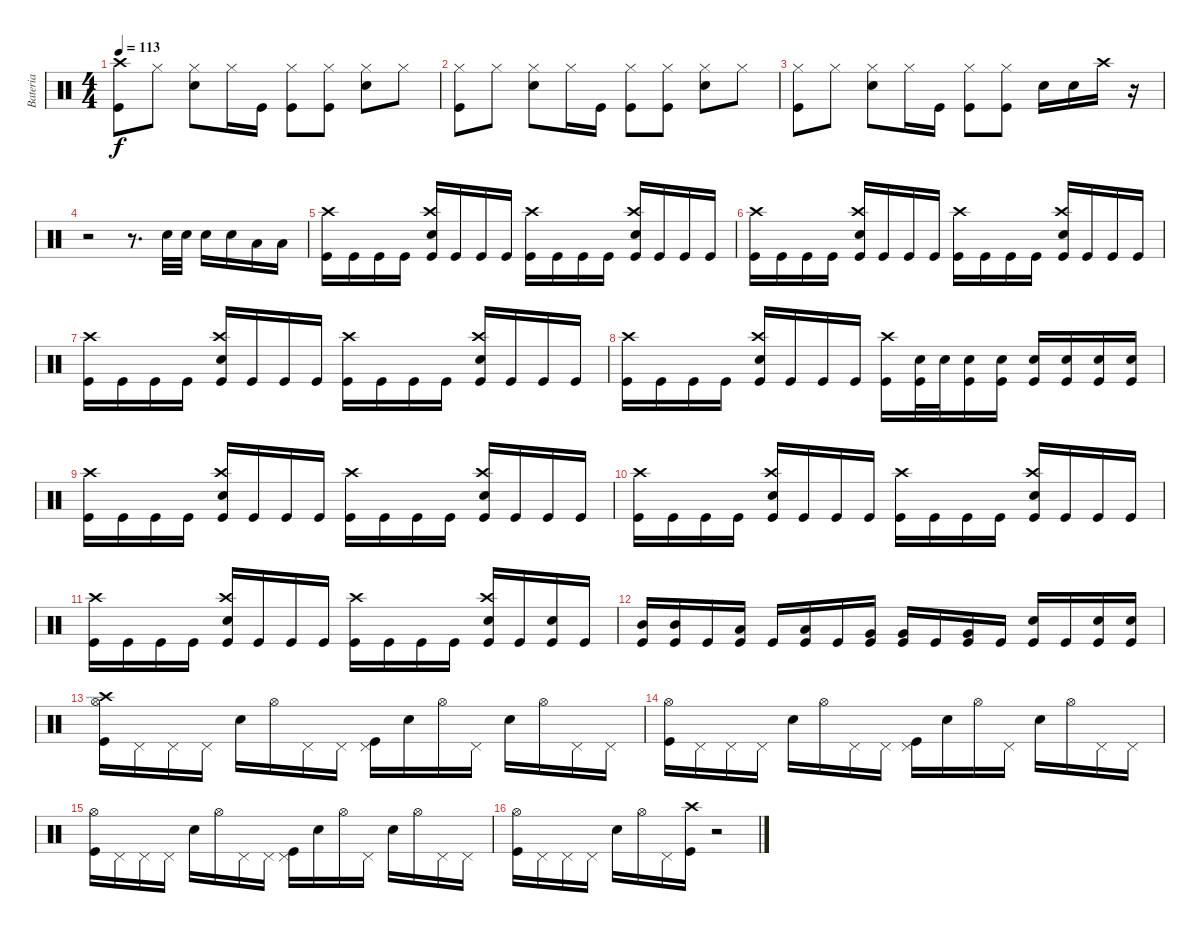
\track ("Bateria" "Bateria") {instrument percussion}
\staff {score}
\articulation defaults
\ts (4 4)
\tempo 113
\clef neutral
\ks c
("Kick (hit)" "Crash high (hit)").8{dy f} "Hi-Hat (closed)".8 ("Hi-Hat (closed)" "Snare (hit) 2").8 "Hi-Hat (closed)".16 "Kick (hit)".16 ("Kick (hit)" "Hi-Hat (closed)").8 ("Kick (hit)" "Hi-Hat (closed)").8 ("Hi-Hat (closed)" "Snare (hit) 2").8 "Hi-Hat (closed)".8 |
("Kick (hit)" "Hi-Hat (closed)").8 "Hi-Hat (closed)".8 ("Hi-Hat (closed)" "Snare (hit) 2").8 "Hi-Hat (closed)".16 "Kick (hit)".16 ("Kick (hit)" "Hi-Hat (closed)").8 ("Kick (hit)" "Hi-Hat (closed)").8 ("Hi-Hat (closed)" "Snare (hit) 2").8 "Hi-Hat (closed)".8 |
("Kick (hit)" "Hi-Hat (closed)").8 "Hi-Hat (closed)".8 ("Hi-Hat (closed)" "Snare (hit) 2").8 "Hi-Hat (closed)".16 "Kick (hit)".16 ("Kick (hit)" "Hi-Hat (closed)").8 ("Kick (hit)" "Hi-Hat (closed)").8 "Snare (hit) 2".16 "Snare (hit) 2".16 "Crash high (hit)".16 r.16 |
r.2 r.8{d} "Snare (hit) 2".32 "Snare (hit) 2".32 "Snare (hit) 2".16 "Snare (hit) 2".16 "Low Tom (hit)".16 "Low Tom (hit)".16 |
("Kick (hit)" "Crash high (hit)").16 "Kick (hit)".16 "Kick (hit)".16 "Kick (hit)".16 ("Kick (hit)" "Crash high (hit)" "Snare (hit) 2").16 "Kick (hit)".16 "Kick (hit)".16 "Kick (hit)".16 ("Kick (hit)" "Crash high (hit)").16 "Kick (hit)".16 "Kick (hit)".16 "Kick (hit)".16 ("Kick (hit)" "Crash high (hit)" "Snare (hit) 2").16 "Kick (hit)".16 "Kick (hit)".16 "Kick (hit)".16 |
("Kick (hit)" "Crash high (hit)").16 "Kick (hit)".16 "Kick (hit)".16 "Kick (hit)".16 ("Kick (hit)" "Crash high (hit)" "Snare (hit) 2").16 "Kick (hit)".16 "Kick (hit)".16 "Kick (hit)".16 ("Kick (hit)" "Crash high (hit)").16 "Kick (hit)".16 "Kick (hit)".16 "Kick (hit)".16 ("Kick (hit)" "Crash high (hit)" "Snare (hit) 2").16 "Kick (hit)".16 "Kick (hit)".16 "Kick (hit)".16 |
("Kick (hit)" "Crash high (hit)").16 "Kick (hit)".16 "Kick (hit)".16 "Kick (hit)".16 ("Kick (hit)" "Crash high (hit)" "Snare (hit) 2").16 "Kick (hit)".16 "Kick (hit)".16 "Kick (hit)".16 ("Kick (hit)" "Crash high (hit)").16 "Kick (hit)".16 "Kick (hit)".16 "Kick (hit)".16 ("Kick (hit)" "Crash high (hit)" "Snare (hit) 2").16 "Kick (hit)".16 "Kick (hit)".16 "Kick (hit)".16 |
("Kick (hit)" "Crash high (hit)").16 "Kick (hit)".16 "Kick (hit)".16 "Kick (hit)".16 ("Kick (hit)" "Crash high (hit)" "Snare (hit) 2").16 "Kick (hit)".16 "Kick (hit)".16 "Kick (hit)".16 ("Kick (hit)" "Crash high (hit)").16 ("Kick (hit)" "Snare (hit) 2").32 "Snare (hit) 2".32 ("Kick (hit)" "Snare (hit) 2").16 ("Kick (hit)" "Snare (hit) 2").16 ("Kick (hit)" "Snare (hit) 2").16 ("Kick (hit)" "Snare (hit) 2").16 ("Kick (hit)" "Snare (hit) 2").16 ("Kick (hit)" "Snare (hit) 2").16 |
("Kick (hit)" "Crash high (hit)").16 "Kick (hit)".16 "Kick (hit)".16 "Kick (hit)".16 ("Kick (hit)" "Crash high (hit)" "Snare (hit) 2").16 "Kick (hit)".16 "Kick (hit)".16 "Kick (hit)".16 ("Kick (hit)" "Crash high (hit)").16 "Kick (hit)".16 "Kick (hit)".16 "Kick (hit)".16 ("Kick (hit)" "Crash high (hit)" "Snare (hit) 2").16 "Kick (hit)".16 "Kick (hit)".16 "Kick (hit)".16 |
("Kick (hit)" "Crash high (hit)").16 "Kick (hit)".16 "Kick (hit)".16 "Kick (hit)".16 ("Kick (hit)" "Crash high (hit)" "Snare (hit) 2").16 "Kick (hit)".16 "Kick (hit)".16 "Kick (hit)".16 ("Kick (hit)" "Crash high (hit)").16 "Kick (hit)".16 "Kick (hit)".16 "Kick (hit)".16 ("Kick (hit)" "Crash high (hit)" "Snare (hit) 2").16 "Kick (hit)".16 "Kick (hit)".16 "Kick (hit)".16 |
("Kick (hit)" "Crash high (hit)").16 "Kick (hit)".16 "Kick (hit)".16 "Kick (hit)".16 ("Kick (hit)" "Crash high (hit)" "Snare (hit) 2").16 "Kick (hit)".16 "Kick (hit)".16 "Kick (hit)".16 ("Kick (hit)" "Crash high (hit)").16 "Kick (hit)".16 "Kick (hit)".16 "Kick (hit)".16 ("Kick (hit)" "Crash high (hit)" "Snare (hit) 2").16 "Kick (hit)".16 ("Kick (hit)" "Snare (hit) 2").16 "Kick (hit)".16 |
("Kick (hit)" "Mid Tom (hit)").16 ("Kick (hit)" "Mid Tom (hit)").16 "Kick (hit)".16 ("Kick (hit)" "Low Tom (hit)").16 "Kick (hit)".16 ("Kick (hit)" "Low Tom (hit)").16 "Kick (hit)".16 ("Kick (hit)" "Very Low Tom (hit)").16 ("Kick (hit)" "Very Low Tom (hit)").16 "Kick (hit)".16 ("Kick (hit)" "Very Low Tom (hit)").16 "Kick (hit)".16 ("Kick (hit)" "Snare (hit) 2").16 "Kick (hit)".16 ("Kick (hit)" "Snare (hit) 2").16 ("Kick (hit)" "Snare (hit) 2").16 |
("Kick (hit)" "Crash high (hit)" "Hi-Hat (open)").16 "Pedal Hi-Hat (hit)".16 "Pedal Hi-Hat (hit)".16 "Pedal Hi-Hat (hit)".16 "Snare (hit) 2".16 "Hi-Hat (open)".16 "Pedal Hi-Hat (hit)".16 "Pedal Hi-Hat (hit)".16 ("Kick (hit)" "Pedal Hi-Hat (hit)").16 "Snare (hit) 2".16 "Hi-Hat (open)".16 "Pedal Hi-Hat (hit)".16 "Snare (hit) 2".16 "Hi-Hat (open)".16 "Pedal Hi-Hat (hit)".16 "Pedal Hi-Hat (hit)".16 |
("Kick (hit)" "Hi-Hat (open)").16 "Pedal Hi-Hat (hit)".16 "Pedal Hi-Hat (hit)".16 "Pedal Hi-Hat (hit)".16 "Snare (hit) 2".16 "Hi-Hat (open)".16 "Pedal Hi-Hat (hit)".16 "Pedal Hi-Hat (hit)".16 ("Kick (hit)" "Pedal Hi-Hat (hit)").16 "Snare (hit) 2".16 "Hi-Hat (open)".16 "Pedal Hi-Hat (hit)".16 "Snare (hit) 2".16 "Hi-Hat (open)".16 "Pedal Hi-Hat (hit)".16 "Pedal Hi-Hat (hit)".16 |
("Kick (hit)" "Hi-Hat (open)").16 "Pedal Hi-Hat (hit)".16 "Pedal Hi-Hat (hit)".16 "Pedal Hi-Hat (hit)".16 "Snare (hit) 2".16 "Hi-Hat (open)".16 "Pedal Hi-Hat (hit)".16 "Pedal Hi-Hat (hit)".16 ("Kick (hit)" "Pedal Hi-Hat (hit)").16 "Snare (hit) 2".16 "Hi-Hat (open)".16 "Pedal Hi-Hat (hit)".16 "Snare (hit) 2".16 "Hi-Hat (open)".16 "Pedal Hi-Hat (hit)".16 "Pedal Hi-Hat (hit)".16 |
("Kick (hit)" "Hi-Hat (open)").16 "Pedal Hi-Hat (hit)".16 "Pedal Hi-Hat (hit)".16 "Pedal Hi-Hat (hit)".16 "Snare (hit) 2".16 "Hi-Hat (open)".16 "Pedal Hi-Hat (hit)".16 ("Kick (hit)" "Crash high (hit)").16 r.2
